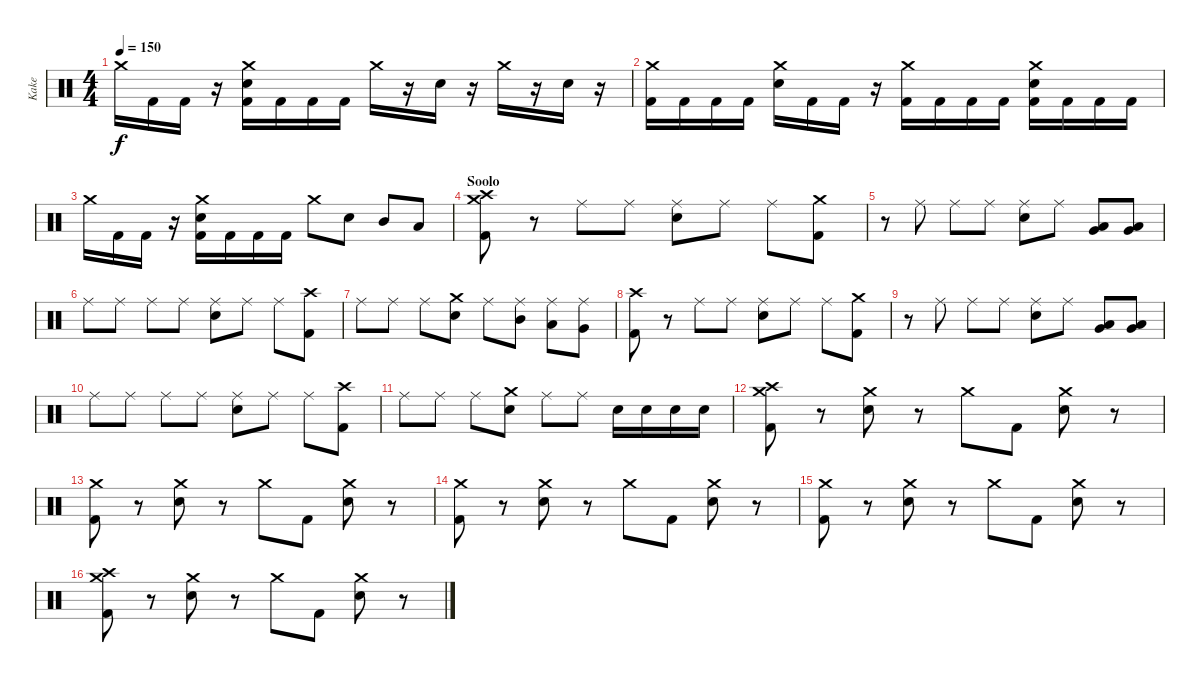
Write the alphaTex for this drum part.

\track ("Kake" "Kake") {instrument percussion}
\staff {score}
\articulation defaults
\ts (4 4)
\tempo 150
\clef neutral
\ks c "Crash medium (hit)".16{dy f} "Kick (hit) 2".16 "Kick (hit) 2".16
r.16 ("Crash medium (hit)" "Electric Snare (hit)" "Kick (hit) 2").16 "Kick (hit) 2".16 "Kick (hit) 2".16 "Kick (hit) 2".16 "Crash medium (hit)".16 r.16 "Electric Snare (hit)".16 r.16 "Crash medium (hit)".16 r.16 "Electric Snare (hit)".16 r.16 |
("Crash medium (hit)" "Kick (hit) 2").16 "Kick (hit) 2".16 "Kick (hit) 2".16 "Kick (hit) 2".16 ("Crash medium (hit)" "Electric Snare (hit)").16 "Kick (hit) 2".16 "Kick (hit) 2".16 r.16 ("Crash medium (hit)" "Kick (hit) 2").16 "Kick (hit) 2".16 "Kick (hit) 2".16 "Kick (hit) 2".16 ("Crash medium (hit)" "Electric Snare (hit)" "Kick (hit) 2").16 "Kick (hit) 2".16 "Kick (hit) 2".16 "Kick (hit) 2".16 |
"Crash medium (hit)".16 "Kick (hit) 2".16 "Kick (hit) 2".16 r.16 ("Crash medium (hit)" "Electric Snare (hit)" "Kick (hit) 2").16 "Kick (hit) 2".16 "Kick (hit) 2".16 "Kick (hit) 2".16 "Crash medium (hit)".8 "Electric Snare (hit)".8 "Mid Tom (hit)".8 "Low Tom (hit)".8 |
\section ("" "Soolo")
("Crash high (hit)" "Crash medium (hit)" "Kick (hit) 2").8 r.8 "Ride (middle)".8 "Ride (middle)".8 ("Ride (middle)" "Electric Snare (hit)").8 "Ride (middle)".8 "Ride (middle)".8 ("Crash medium (hit)" "Kick (hit) 2").8 |
r.8 "Ride (middle)".8 "Ride (middle)".8 "Ride (middle)".8 ("Ride (middle)" "Electric Snare (hit)").8 "Ride (middle)".8 ("Very Low Tom (hit)" "Low Floor Tom (hit)").8 ("Very Low Tom (hit)" "Low Floor Tom (hit)").8 |
"Ride (middle)".8 "Ride (middle)".8 "Ride (middle)".8 "Ride (middle)".8 ("Ride (middle)" "Electric Snare (hit)").8 "Ride (middle)".8 "Ride (middle)".8 ("Crash high (hit)" "Kick (hit) 2").8 |
"Ride (middle)".8 "Ride (middle)".8 "Ride (middle)".8 ("Crash medium (hit)" "Electric Snare (hit)").8 "Ride (middle)".8 ("Ride (middle)" "Mid Tom (hit)").8 ("Ride (middle)" "Low Tom (hit)").8 ("Ride (middle)" "Very Low Tom (hit)").8 |
("Crash high (hit)" "Kick (hit) 2").8 r.8 "Ride (middle)".8 "Ride (middle)".8 ("Ride (middle)" "Electric Snare (hit)").8 "Ride (middle)".8 "Ride (middle)".8 ("Crash medium (hit)" "Kick (hit) 2").8 |
r.8 "Ride (middle)".8 "Ride (middle)".8 "Ride (middle)".8 ("Ride (middle)" "Electric Snare (hit)").8 "Ride (middle)".8 ("Very Low Tom (hit)" "Low Floor Tom (hit)").8 ("Very Low Tom (hit)" "Low Floor Tom (hit)").8 |
"Ride (middle)".8 "Ride (middle)".8 "Ride (middle)".8 "Ride (middle)".8 ("Ride (middle)" "Electric Snare (hit)").8 "Ride (middle)".8 "Ride (middle)".8 ("Crash high (hit)" "Kick (hit) 2").8 |
"Ride (middle)".8 "Ride (middle)".8 "Ride (middle)".8 ("Crash medium (hit)" "Electric Snare (hit)").8 "Ride (middle)".8 "Ride (middle)".8 "Electric Snare (hit)".16 "Electric Snare (hit)".16 "Electric Snare (hit)".16 "Electric Snare (hit)".16 |
("Crash high (hit)" "Crash medium (hit)" "Kick (hit) 2").8 r.8 ("Crash medium (hit)" "Electric Snare (hit)").8 r.8 "Crash medium (hit)".8 "Kick (hit) 2".8 ("Crash medium (hit)" "Electric Snare (hit)").8 r.8 |
("Crash medium (hit)" "Kick (hit) 2").8 r.8 ("Crash medium (hit)" "Electric Snare (hit)").8 r.8 "Crash medium (hit)".8 "Kick (hit) 2".8 ("Crash medium (hit)" "Electric Snare (hit)").8 r.8 |
("Crash medium (hit)" "Kick (hit) 2").8 r.8 ("Crash medium (hit)" "Electric Snare (hit)").8 r.8 "Crash medium (hit)".8 "Kick (hit) 2".8 ("Crash medium (hit)" "Electric Snare (hit)").8 r.8 |
("Crash medium (hit)" "Kick (hit) 2").8 r.8 ("Crash medium (hit)" "Electric Snare (hit)").8 r.8 "Crash medium (hit)".8 "Kick (hit) 2".8 ("Crash medium (hit)" "Electric Snare (hit)").8 r.8 |
("Crash high (hit)" "Crash medium (hit)" "Kick (hit) 2").8 r.8 ("Crash medium (hit)" "Electric Snare (hit)").8 r.8 "Crash medium (hit)".8 "Kick (hit) 2".8 ("Crash medium (hit)" "Electric Snare (hit)").8 r.8
